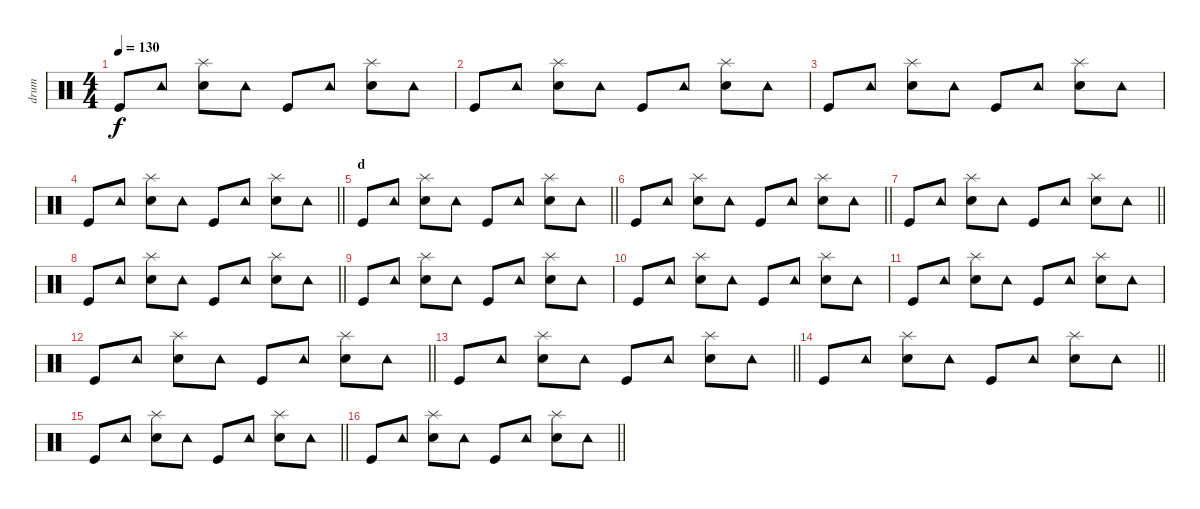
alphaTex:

\track ("drum" "drum") {instrument percussion}
\staff {score}
\articulation defaults
\ts (4 4)
\tempo 130
\clef neutral
\ks c "Kick (hit)".8{dy f} "Tambourine (hit)".8
("Snare (hit) 2" "Splash (hit)").8 "Tambourine (hit)".8 "Kick (hit)".8 "Tambourine (hit)".8 ("Snare (hit) 2" "Splash (hit)").8 "Tambourine (hit)".8 |
"Kick (hit)".8 "Tambourine (hit)".8 ("Snare (hit) 2" "Splash (hit)").8 "Tambourine (hit)".8 "Kick (hit)".8 "Tambourine (hit)".8 ("Snare (hit) 2" "Splash (hit)").8 "Tambourine (hit)".8 |
"Kick (hit)".8 "Tambourine (hit)".8 ("Snare (hit) 2" "Splash (hit)").8 "Tambourine (hit)".8 "Kick (hit)".8 "Tambourine (hit)".8 ("Snare (hit) 2" "Splash (hit)").8 "Tambourine (hit)".8 |
\barLineRight lightlight "Kick (hit)".8 "Tambourine (hit)".8
("Snare (hit) 2" "Splash (hit)").8 "Tambourine (hit)".8 "Kick (hit)".8 "Tambourine (hit)".8 ("Snare (hit) 2" "Splash (hit)").8 "Tambourine (hit)".8 |
\section ("" "d")
\barLineRight lightlight "Kick (hit)".8 "Tambourine (hit)".8
("Snare (hit) 2" "Splash (hit)").8 "Tambourine (hit)".8 "Kick (hit)".8 "Tambourine (hit)".8 ("Snare (hit) 2" "Splash (hit)").8 "Tambourine (hit)".8 |
\barLineRight lightlight "Kick (hit)".8 "Tambourine (hit)".8
("Snare (hit) 2" "Splash (hit)").8 "Tambourine (hit)".8 "Kick (hit)".8 "Tambourine (hit)".8 ("Snare (hit) 2" "Splash (hit)").8 "Tambourine (hit)".8 |
\barLineRight lightlight "Kick (hit)".8 "Tambourine (hit)".8
("Snare (hit) 2" "Splash (hit)").8 "Tambourine (hit)".8 "Kick (hit)".8 "Tambourine (hit)".8 ("Snare (hit) 2" "Splash (hit)").8 "Tambourine (hit)".8 |
\barLineRight lightlight "Kick (hit)".8 "Tambourine (hit)".8
("Snare (hit) 2" "Splash (hit)").8 "Tambourine (hit)".8 "Kick (hit)".8 "Tambourine (hit)".8 ("Snare (hit) 2" "Splash (hit)").8 "Tambourine (hit)".8 |
"Kick (hit)".8 "Tambourine (hit)".8 ("Snare (hit) 2" "Splash (hit)").8 "Tambourine (hit)".8 "Kick (hit)".8 "Tambourine (hit)".8 ("Snare (hit) 2" "Splash (hit)").8 "Tambourine (hit)".8 |
"Kick (hit)".8 "Tambourine (hit)".8 ("Snare (hit) 2" "Splash (hit)").8 "Tambourine (hit)".8 "Kick (hit)".8 "Tambourine (hit)".8 ("Snare (hit) 2" "Splash (hit)").8 "Tambourine (hit)".8 |
"Kick (hit)".8 "Tambourine (hit)".8 ("Snare (hit) 2" "Splash (hit)").8 "Tambourine (hit)".8 "Kick (hit)".8 "Tambourine (hit)".8 ("Snare (hit) 2" "Splash (hit)").8 "Tambourine (hit)".8 |
\barLineRight lightlight "Kick (hit)".8 "Tambourine (hit)".8
("Snare (hit) 2" "Splash (hit)").8 "Tambourine (hit)".8 "Kick (hit)".8 "Tambourine (hit)".8 ("Snare (hit) 2" "Splash (hit)").8 "Tambourine (hit)".8 |
\barLineRight lightlight "Kick (hit)".8 "Tambourine (hit)".8
("Snare (hit) 2" "Splash (hit)").8 "Tambourine (hit)".8 "Kick (hit)".8 "Tambourine (hit)".8 ("Snare (hit) 2" "Splash (hit)").8 "Tambourine (hit)".8 |
\barLineRight lightlight "Kick (hit)".8 "Tambourine (hit)".8
("Snare (hit) 2" "Splash (hit)").8 "Tambourine (hit)".8 "Kick (hit)".8 "Tambourine (hit)".8 ("Snare (hit) 2" "Splash (hit)").8 "Tambourine (hit)".8 |
\barLineRight lightlight "Kick (hit)".8 "Tambourine (hit)".8
("Snare (hit) 2" "Splash (hit)").8 "Tambourine (hit)".8 "Kick (hit)".8 "Tambourine (hit)".8 ("Snare (hit) 2" "Splash (hit)").8 "Tambourine (hit)".8 |
\barLineRight lightlight "Kick (hit)".8 "Tambourine (hit)".8
("Snare (hit) 2" "Splash (hit)").8 "Tambourine (hit)".8 "Kick (hit)".8 "Tambourine (hit)".8 ("Snare (hit) 2" "Splash (hit)").8 "Tambourine (hit)".8
